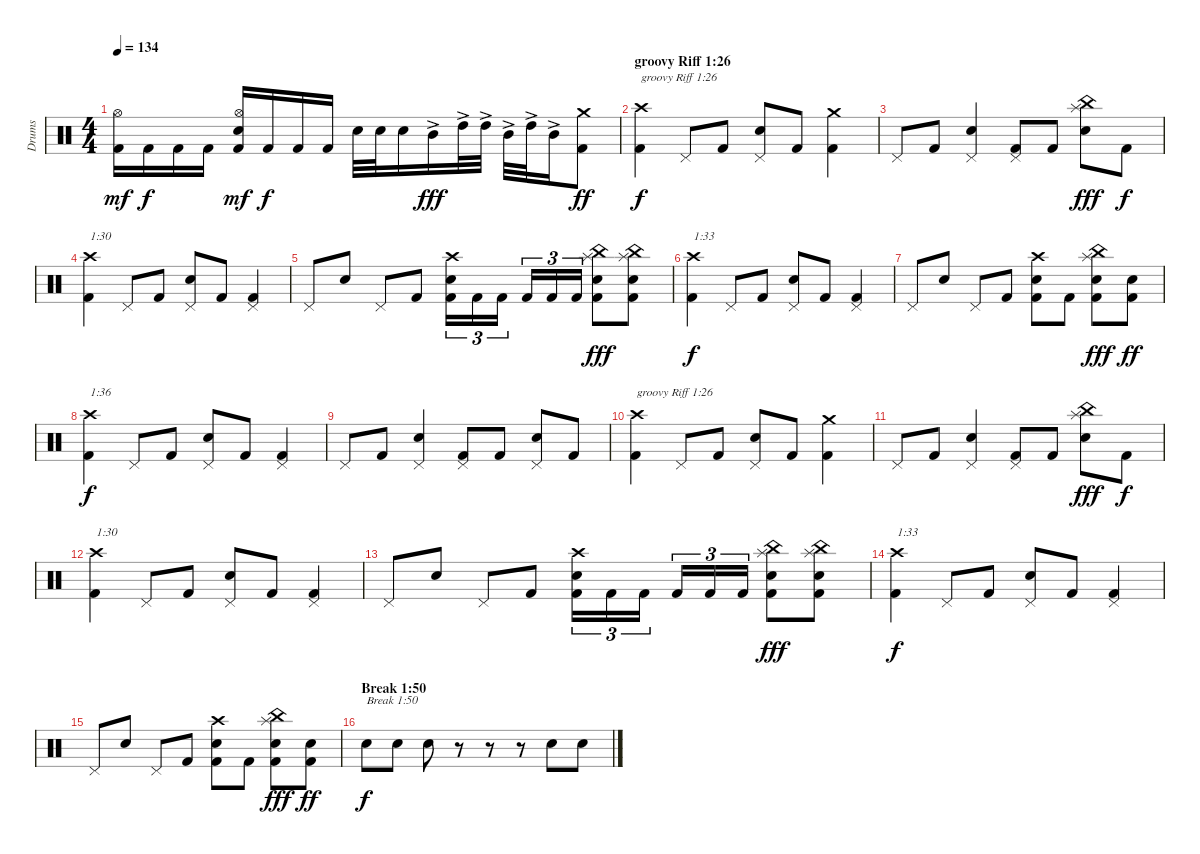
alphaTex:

\track ("Drums" "Drums") {instrument percussion}
\staff {score}
\articulation defaults
\ts (4 4)
\tempo 134
\clef neutral
\ks c
("Kick (hit) 2" "Hi-Hat (open)").16{dy mf} "Kick (hit) 2".16{dy f} "Kick (hit) 2".16 "Kick (hit) 2".16 ("Kick (hit) 2" "Electric Snare (hit)" "Hi-Hat (open)").16{dy mf} "Kick (hit) 2".16{dy f} "Kick (hit) 2".16 "Kick (hit) 2".16 "Electric Snare (hit)".32 "Electric Snare (hit)".32 "Electric Snare (hit)".16 "Mid Tom (hit)"{ac}.16{dy fff} "High Tom (hit)"{ac}.32 "High Tom (hit)"{ac}.32 "Mid Tom (hit)"{ac}.32 "High Tom (hit)"{ac}.32 "Mid Tom (hit)"{ac}.16 ("Kick (hit) 2" "Crash medium (hit)").8{dy ff} |
\section ("" "groovy Riff 1:26")
("Kick (hit) 2" "Crash high (hit)").4{txt "groovy Riff 1:26" dy f} "Pedal Hi-Hat (hit)".8 "Kick (hit) 2".8 ("Electric Snare (hit)" "Pedal Hi-Hat (hit)").8 "Kick (hit) 2".8 ("Kick (hit) 2" "Crash medium (hit)").4 |
"Pedal Hi-Hat (hit)".8 "Kick (hit) 2".8 ("Electric Snare (hit)" "Pedal Hi-Hat (hit)").4 ("Kick (hit) 2" "Pedal Hi-Hat (hit)").8 "Kick (hit) 2".8 ("Electric Snare (hit)" "Splash (hit)" "China (hit)").8{dy fff} "Kick (hit) 2".8{dy f} |
("Kick (hit) 2" "Crash high (hit)").4{txt "1:30"} "Pedal Hi-Hat (hit)".8 "Kick (hit) 2".8 ("Electric Snare (hit)" "Pedal Hi-Hat (hit)").8 "Kick (hit) 2".8 ("Kick (hit) 2" "Pedal Hi-Hat (hit)").4 |
"Pedal Hi-Hat (hit)".8 "Electric Snare (hit)".8 "Pedal Hi-Hat (hit)".8 "Kick (hit) 2".8 ("Kick (hit) 2" "Electric Snare (hit)" "Crash high (hit)").16{tu (3 2)} "Kick (hit) 2".16{tu (3 2)} "Kick (hit) 2".16{tu (3 2)} "Kick (hit) 2".16{tu (3 2)} "Kick (hit) 2".16{tu (3 2)} "Kick (hit) 2".16{tu (3 2)} ("Kick (hit) 2" "Electric Snare (hit)" "Splash (hit)" "China (hit)").8{dy fff} ("Kick (hit) 2" "Electric Snare (hit)" "Splash (hit)" "China (hit)").8 |
("Kick (hit) 2" "Crash high (hit)").4{txt "1:33" dy f} "Pedal Hi-Hat (hit)".8 "Kick (hit) 2".8 ("Electric Snare (hit)" "Pedal Hi-Hat (hit)").8 "Kick (hit) 2".8 ("Kick (hit) 2" "Pedal Hi-Hat (hit)").4 |
"Pedal Hi-Hat (hit)".8 "Electric Snare (hit)".8 "Pedal Hi-Hat (hit)".8 "Kick (hit) 2".8 ("Kick (hit) 2" "Electric Snare (hit)" "Crash high (hit)").8 "Kick (hit) 2".8 ("Kick (hit) 2" "Electric Snare (hit)" "Splash (hit)" "China (hit)").8{dy fff} ("Kick (hit) 2" "Electric Snare (hit)").8{dy ff} |
("Kick (hit) 2" "Crash high (hit)").4{txt "1:36" dy f} "Pedal Hi-Hat (hit)".8 "Kick (hit) 2".8 ("Electric Snare (hit)" "Pedal Hi-Hat (hit)").8 "Kick (hit) 2".8 ("Kick (hit) 2" "Pedal Hi-Hat (hit)").4 |
"Pedal Hi-Hat (hit)".8 "Kick (hit) 2".8 ("Electric Snare (hit)" "Pedal Hi-Hat (hit)").4 ("Kick (hit) 2" "Pedal Hi-Hat (hit)").8 "Kick (hit) 2".8 ("Electric Snare (hit)" "Pedal Hi-Hat (hit)").8 "Kick (hit) 2".8 |
("Kick (hit) 2" "Crash high (hit)").4{txt "groovy Riff 1:26"} "Pedal Hi-Hat (hit)".8 "Kick (hit) 2".8 ("Electric Snare (hit)" "Pedal Hi-Hat (hit)").8 "Kick (hit) 2".8 ("Kick (hit) 2" "Crash medium (hit)").4 |
"Pedal Hi-Hat (hit)".8 "Kick (hit) 2".8 ("Electric Snare (hit)" "Pedal Hi-Hat (hit)").4 ("Kick (hit) 2" "Pedal Hi-Hat (hit)").8 "Kick (hit) 2".8 ("Electric Snare (hit)" "Splash (hit)" "China (hit)").8{dy fff} "Kick (hit) 2".8{dy f} |
("Kick (hit) 2" "Crash high (hit)").4{txt "1:30"} "Pedal Hi-Hat (hit)".8 "Kick (hit) 2".8 ("Electric Snare (hit)" "Pedal Hi-Hat (hit)").8 "Kick (hit) 2".8 ("Kick (hit) 2" "Pedal Hi-Hat (hit)").4 |
"Pedal Hi-Hat (hit)".8 "Electric Snare (hit)".8 "Pedal Hi-Hat (hit)".8 "Kick (hit) 2".8 ("Kick (hit) 2" "Electric Snare (hit)" "Crash high (hit)").16{tu (3 2)} "Kick (hit) 2".16{tu (3 2)} "Kick (hit) 2".16{tu (3 2)} "Kick (hit) 2".16{tu (3 2)} "Kick (hit) 2".16{tu (3 2)} "Kick (hit) 2".16{tu (3 2)} ("Kick (hit) 2" "Electric Snare (hit)" "Splash (hit)" "China (hit)").8{dy fff} ("Kick (hit) 2" "Electric Snare (hit)" "Splash (hit)" "China (hit)").8 |
("Kick (hit) 2" "Crash high (hit)").4{txt "1:33" dy f} "Pedal Hi-Hat (hit)".8 "Kick (hit) 2".8 ("Electric Snare (hit)" "Pedal Hi-Hat (hit)").8 "Kick (hit) 2".8 ("Kick (hit) 2" "Pedal Hi-Hat (hit)").4 |
"Pedal Hi-Hat (hit)".8 "Electric Snare (hit)".8 "Pedal Hi-Hat (hit)".8 "Kick (hit) 2".8 ("Kick (hit) 2" "Electric Snare (hit)" "Crash high (hit)").8 "Kick (hit) 2".8 ("Kick (hit) 2" "Electric Snare (hit)" "Splash (hit)" "China (hit)").8{dy fff} ("Kick (hit) 2" "Electric Snare (hit)").8{dy ff} |
\section ("" "Break 1:50")
"Electric Snare (hit)".8{txt "Break 1:50" dy f} "Electric Snare (hit)".8 "Electric Snare (hit)".8 r.8 r.8 r.8 "Electric Snare (hit)".8 "Electric Snare (hit)".8
